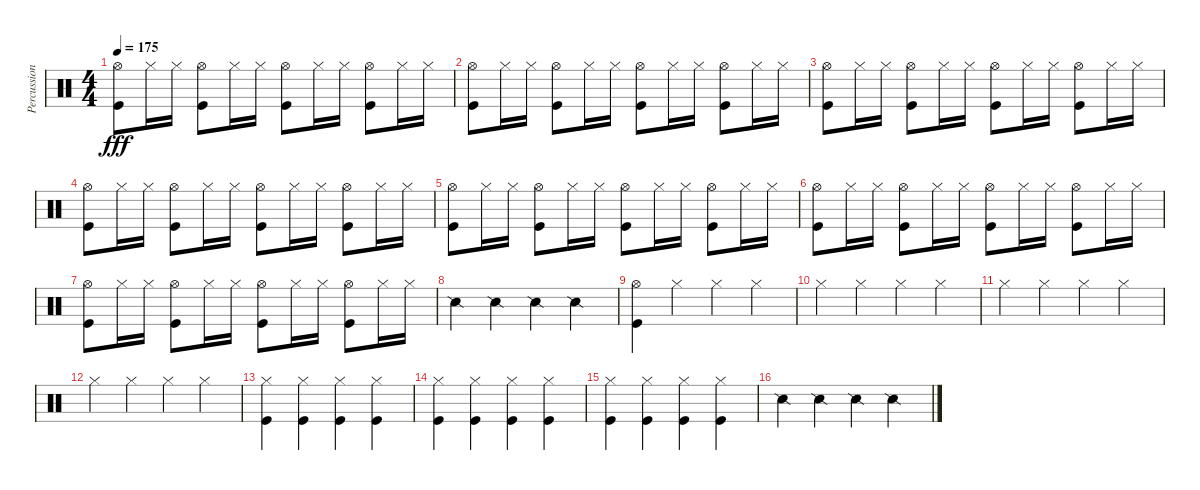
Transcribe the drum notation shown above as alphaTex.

\track ("Percussion" "Percussion") {instrument percussion}
\staff {score}
\articulation defaults
\ts (4 4)
\tempo 175
\clef neutral
\ks c
("Hi-Hat (open)" "Kick (hit)").8{dy fff} "Hi-Hat (closed)".16 "Hi-Hat (closed)".16 ("Hi-Hat (open)" "Kick (hit)").8 "Hi-Hat (closed)".16 "Hi-Hat (closed)".16 ("Hi-Hat (open)" "Kick (hit)").8 "Hi-Hat (closed)".16 "Hi-Hat (closed)".16 ("Hi-Hat (open)" "Kick (hit)").8 "Hi-Hat (closed)".16 "Hi-Hat (closed)".16 |
("Hi-Hat (open)" "Kick (hit)").8 "Hi-Hat (closed)".16 "Hi-Hat (closed)".16 ("Hi-Hat (open)" "Kick (hit)").8 "Hi-Hat (closed)".16 "Hi-Hat (closed)".16 ("Hi-Hat (open)" "Kick (hit)").8 "Hi-Hat (closed)".16 "Hi-Hat (closed)".16 ("Hi-Hat (open)" "Kick (hit)").8 "Hi-Hat (closed)".16 "Hi-Hat (closed)".16 |
("Hi-Hat (open)" "Kick (hit)").8 "Hi-Hat (closed)".16 "Hi-Hat (closed)".16 ("Hi-Hat (open)" "Kick (hit)").8 "Hi-Hat (closed)".16 "Hi-Hat (closed)".16 ("Hi-Hat (open)" "Kick (hit)").8 "Hi-Hat (closed)".16 "Hi-Hat (closed)".16 ("Hi-Hat (open)" "Kick (hit)").8 "Hi-Hat (closed)".16 "Hi-Hat (closed)".16 |
("Hi-Hat (open)" "Kick (hit)").8 "Hi-Hat (closed)".16 "Hi-Hat (closed)".16 ("Hi-Hat (open)" "Kick (hit)").8 "Hi-Hat (closed)".16 "Hi-Hat (closed)".16 ("Hi-Hat (open)" "Kick (hit)").8 "Hi-Hat (closed)".16 "Hi-Hat (closed)".16 ("Hi-Hat (open)" "Kick (hit)").8 "Hi-Hat (closed)".16 "Hi-Hat (closed)".16 |
("Hi-Hat (open)" "Kick (hit)").8 "Hi-Hat (closed)".16 "Hi-Hat (closed)".16 ("Hi-Hat (open)" "Kick (hit)").8 "Hi-Hat (closed)".16 "Hi-Hat (closed)".16 ("Hi-Hat (open)" "Kick (hit)").8 "Hi-Hat (closed)".16 "Hi-Hat (closed)".16 ("Hi-Hat (open)" "Kick (hit)").8 "Hi-Hat (closed)".16 "Hi-Hat (closed)".16 |
("Hi-Hat (open)" "Kick (hit)").8 "Hi-Hat (closed)".16 "Hi-Hat (closed)".16 ("Hi-Hat (open)" "Kick (hit)").8 "Hi-Hat (closed)".16 "Hi-Hat (closed)".16 ("Hi-Hat (open)" "Kick (hit)").8 "Hi-Hat (closed)".16 "Hi-Hat (closed)".16 ("Hi-Hat (open)" "Kick (hit)").8 "Hi-Hat (closed)".16 "Hi-Hat (closed)".16 |
("Hi-Hat (open)" "Kick (hit)").8 "Hi-Hat (closed)".16 "Hi-Hat (closed)".16 ("Hi-Hat (open)" "Kick (hit)").8 "Hi-Hat (closed)".16 "Hi-Hat (closed)".16 ("Hi-Hat (open)" "Kick (hit)").8 "Hi-Hat (closed)".16 "Hi-Hat (closed)".16 ("Hi-Hat (open)" "Kick (hit)").8 "Hi-Hat (closed)".16 "Hi-Hat (closed)".16 |
"Snare (side stick) 2".4 "Snare (side stick) 2".4 "Snare (side stick) 2".4 "Snare (side stick) 2".4 |
("Hi-Hat (open)" "Kick (hit)").4 "Hi-Hat (closed)".4 "Hi-Hat (closed)".4 "Hi-Hat (closed)".4 |
"Hi-Hat (closed)".4 "Hi-Hat (closed)".4 "Hi-Hat (closed)".4 "Hi-Hat (closed)".4 |
"Hi-Hat (closed)".4 "Hi-Hat (closed)".4 "Hi-Hat (closed)".4 "Hi-Hat (closed)".4 |
"Hi-Hat (closed)".4 "Hi-Hat (closed)".4 "Hi-Hat (closed)".4 "Hi-Hat (closed)".4 |
("Hi-Hat (closed)" "Kick (hit)").4 ("Hi-Hat (closed)" "Kick (hit)").4 ("Hi-Hat (closed)" "Kick (hit)").4 ("Hi-Hat (closed)" "Kick (hit)").4 |
("Hi-Hat (closed)" "Kick (hit)").4 ("Hi-Hat (closed)" "Kick (hit)").4 ("Hi-Hat (closed)" "Kick (hit)").4 ("Hi-Hat (closed)" "Kick (hit)").4 |
("Hi-Hat (closed)" "Kick (hit)").4 ("Hi-Hat (closed)" "Kick (hit)").4 ("Hi-Hat (closed)" "Kick (hit)").4 ("Hi-Hat (closed)" "Kick (hit)").4 |
"Snare (side stick) 2".4 "Snare (side stick) 2".4 "Snare (side stick) 2".4 "Snare (side stick) 2".4
